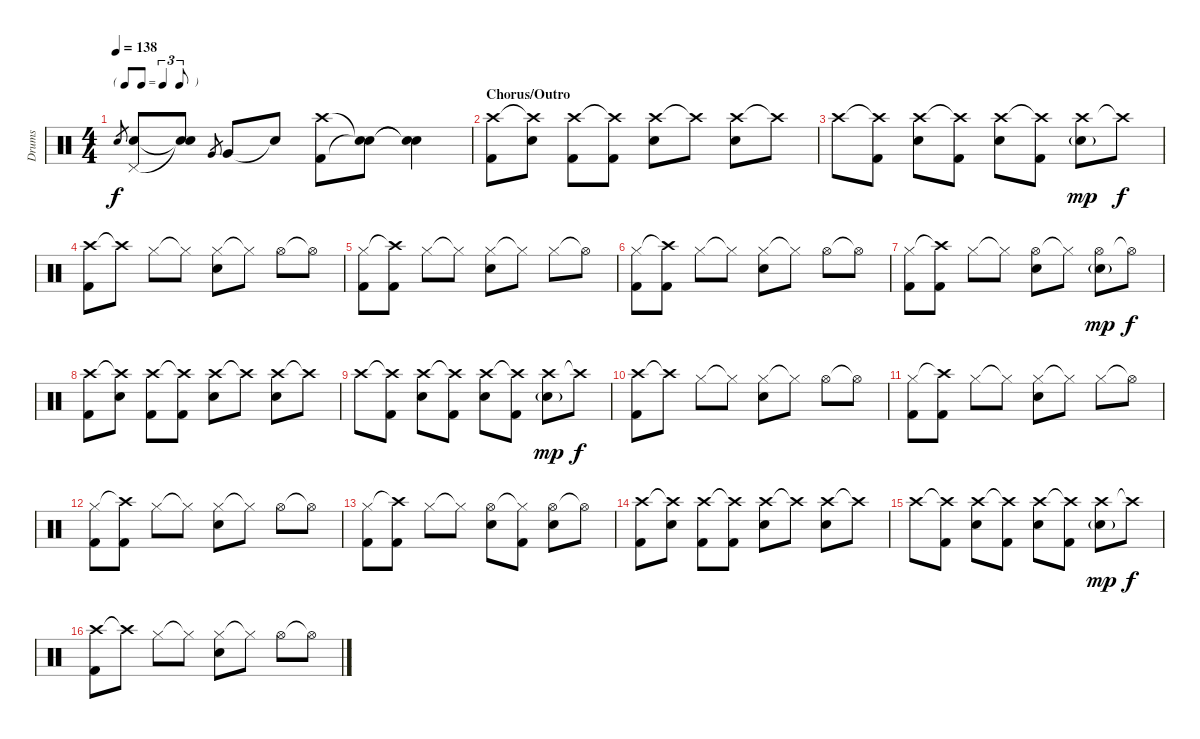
\track ("Drums" "Drums") {instrument percussion}
\staff {score}
\articulation defaults
\ts (4 4)
\tf triplet8th
\tempo 138
\clef neutral
\ks c "Electric Snare (hit)".8{gr dy f}
("Pedal Hi-Hat (hit)" "Electric Snare (hit)").8 ("Snare (hit)"{t} "Snare (hit)"{t}).8 "Very Low Tom (hit)".8{gr} "Very Low Tom (hit)".8 "Snare (hit)"{t}.8 ("Crash high (hit)" "Kick (hit) 2").8 ("Snare (hit)"{t} "Snare (hit)"{t}).8 ("Snare (hit)"{t} "Snare (hit)"{t}).4 |
\section ("" "Chorus/Outro")
("Crash high (hit)" "Kick (hit) 2").8 ("Crash high (hit)"{t} "Electric Snare (hit)").8 ("Crash high (hit)" "Kick (hit) 2").8 ("Crash high (hit)"{t} "Kick (hit) 2").8 ("Crash high (hit)" "Electric Snare (hit)").8 "Crash high (hit)"{t}.8 ("Crash high (hit)" "Electric Snare (hit)").8 "Crash high (hit)"{t}.8 |
"Crash high (hit)".8 ("Crash high (hit)"{t} "Kick (hit) 2").8 ("Crash high (hit)" "Electric Snare (hit)").8 ("Crash high (hit)"{t} "Kick (hit) 2").8 ("Crash high (hit)" "Electric Snare (hit)").8 ("Crash high (hit)"{t} "Kick (hit) 2").8 ("Crash high (hit)" "Electric Snare (hit)"{g}).8{dy mp} "Crash high (hit)"{t}.8{dy f} |
("Crash high (hit)" "Kick (hit) 2").8 "Crash high (hit)"{t}.8 "Hi-Hat (closed)".8 "Hi-Hat (closed)"{t}.8 ("Hi-Hat (closed)" "Electric Snare (hit)").8 "Hi-Hat (closed)"{t}.8 "Hi-Hat (open)".8 "Hi-Hat (open)"{t}.8 |
("Hi-Hat (closed)" "Kick (hit) 2").8 ("Crash high (hit)"{t} "Kick (hit) 2").8 "Hi-Hat (closed)".8 "Hi-Hat (closed)"{t}.8 ("Hi-Hat (closed)" "Electric Snare (hit)").8 "Hi-Hat (closed)"{t}.8 "Hi-Hat (closed)".8 "Hi-Hat (open)"{t}.8 |
("Hi-Hat (closed)" "Kick (hit) 2").8 ("Crash high (hit)"{t} "Kick (hit) 2").8 "Hi-Hat (closed)".8 "Hi-Hat (closed)"{t}.8 ("Hi-Hat (closed)" "Electric Snare (hit)").8 "Hi-Hat (closed)"{t}.8 "Hi-Hat (open)".8 "Hi-Hat (open)"{t}.8 |
("Hi-Hat (closed)" "Kick (hit) 2").8 ("Crash high (hit)"{t} "Kick (hit) 2").8 "Hi-Hat (closed)".8 "Hi-Hat (closed)"{t}.8 ("Hi-Hat (open)" "Electric Snare (hit)").8 "Hi-Hat (closed)"{t}.8 ("Hi-Hat (open)" "Electric Snare (hit)"{g}).8{dy mp} "Hi-Hat (open)"{t}.8{dy f} |
("Crash high (hit)" "Kick (hit) 2").8 ("Crash high (hit)"{t} "Electric Snare (hit)").8 ("Crash high (hit)" "Kick (hit) 2").8 ("Crash high (hit)"{t} "Kick (hit) 2").8 ("Crash high (hit)" "Electric Snare (hit)").8 "Crash high (hit)"{t}.8 ("Crash high (hit)" "Electric Snare (hit)").8 "Crash high (hit)"{t}.8 |
"Crash high (hit)".8 ("Crash high (hit)"{t} "Kick (hit) 2").8 ("Crash high (hit)" "Electric Snare (hit)").8 ("Crash high (hit)"{t} "Kick (hit) 2").8 ("Crash high (hit)" "Electric Snare (hit)").8 ("Crash high (hit)"{t} "Kick (hit) 2").8 ("Crash high (hit)" "Electric Snare (hit)"{g}).8{dy mp} "Crash high (hit)"{t}.8{dy f} |
("Crash high (hit)" "Kick (hit) 2").8 "Crash high (hit)"{t}.8 "Hi-Hat (closed)".8 "Hi-Hat (closed)"{t}.8 ("Hi-Hat (closed)" "Electric Snare (hit)").8 "Hi-Hat (closed)"{t}.8 "Hi-Hat (open)".8 "Hi-Hat (open)"{t}.8 |
("Hi-Hat (closed)" "Kick (hit) 2").8 ("Crash high (hit)"{t} "Kick (hit) 2").8 "Hi-Hat (closed)".8 "Hi-Hat (closed)"{t}.8 ("Hi-Hat (closed)" "Electric Snare (hit)").8 "Hi-Hat (closed)"{t}.8 "Hi-Hat (closed)".8 "Hi-Hat (open)"{t}.8 |
("Hi-Hat (closed)" "Kick (hit) 2").8 ("Crash high (hit)"{t} "Kick (hit) 2").8 "Hi-Hat (closed)".8 "Hi-Hat (closed)"{t}.8 ("Hi-Hat (closed)" "Electric Snare (hit)").8 "Hi-Hat (closed)"{t}.8 "Hi-Hat (open)".8 "Hi-Hat (open)"{t}.8 |
("Hi-Hat (closed)" "Kick (hit) 2").8 ("Crash high (hit)"{t} "Kick (hit) 2").8 "Hi-Hat (closed)".8 "Hi-Hat (closed)"{t}.8 ("Hi-Hat (open)" "Electric Snare (hit)").8 ("Hi-Hat (closed)"{t} "Kick (hit) 2").8 ("Hi-Hat (open)" "Electric Snare (hit)").8 "Hi-Hat (open)"{t}.8 |
("Crash high (hit)" "Kick (hit) 2").8 ("Crash high (hit)"{t} "Electric Snare (hit)").8 ("Crash high (hit)" "Kick (hit) 2").8 ("Crash high (hit)"{t} "Kick (hit) 2").8 ("Crash high (hit)" "Electric Snare (hit)").8 "Crash high (hit)"{t}.8 ("Crash high (hit)" "Electric Snare (hit)").8 "Crash high (hit)"{t}.8 |
"Crash high (hit)".8 ("Crash high (hit)"{t} "Kick (hit) 2").8 ("Crash high (hit)" "Electric Snare (hit)").8 ("Crash high (hit)"{t} "Kick (hit) 2").8 ("Crash high (hit)" "Electric Snare (hit)").8 ("Crash high (hit)"{t} "Kick (hit) 2").8 ("Crash high (hit)" "Electric Snare (hit)"{g}).8{dy mp} "Crash high (hit)"{t}.8{dy f} |
("Crash high (hit)" "Kick (hit) 2").8 "Crash high (hit)"{t}.8 "Hi-Hat (closed)".8 "Hi-Hat (closed)"{t}.8 ("Hi-Hat (closed)" "Electric Snare (hit)").8 "Hi-Hat (closed)"{t}.8 "Hi-Hat (open)".8 "Hi-Hat (open)"{t}.8
